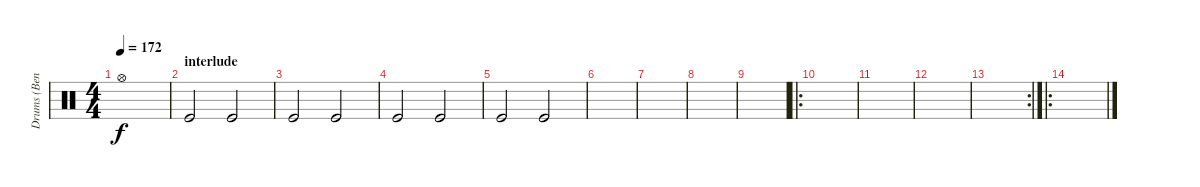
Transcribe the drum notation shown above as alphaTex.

\track ("Drums (Ben)" "Drums (Ben") {instrument percussion}
\staff {score}
\articulation defaults
\ts (4 4)
\tempo 172
\clef neutral
\ks c "Hi-Hat (open)".1{dy f}
|
\section ("" "interlude")
"Kick (hit)".2 "Kick (hit)".2 |
"Kick (hit)".2 "Kick (hit)".2 |
"Kick (hit)".2 "Kick (hit)".2 |
"Kick (hit)".2 "Kick (hit)".2 |
|
|
|
|
\ro
|
|
|
\rc 2
|
\ro
